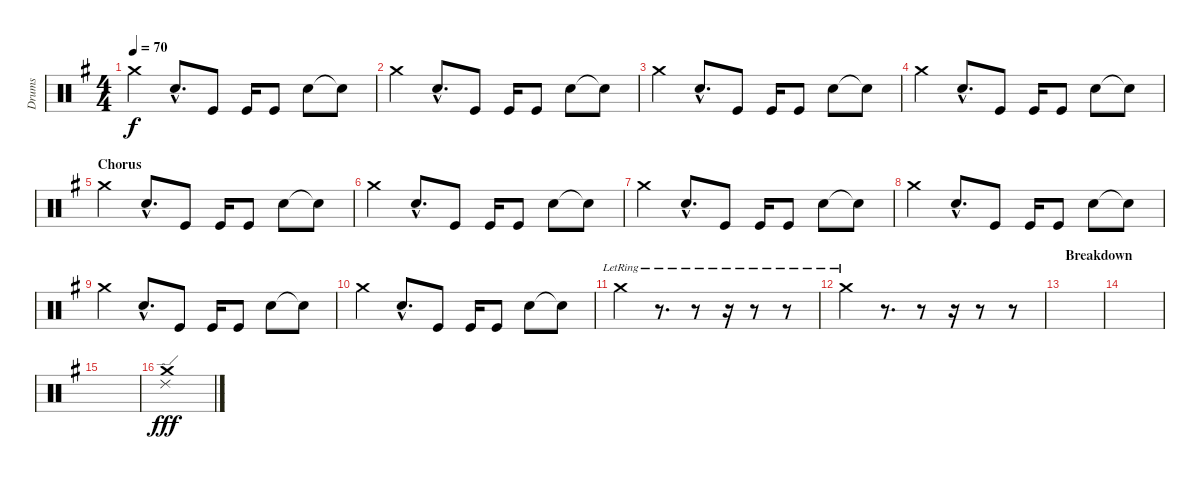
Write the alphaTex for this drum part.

\track ("Drums" "Drums") {instrument percussion}
\staff {score}
\articulation defaults
\ts (4 4)
\tempo 70
\clef neutral
\ks g "Crash medium (hit)".4{dy f} "Snare (hit) 2"{hac}.8{d} "Kick (hit)".8 "Kick (hit)".16 "Kick (hit)".8 "Snare (hit) 2".8 "Snare (hit) 2"{t}.8
|
"Crash medium (hit)".4 "Snare (hit) 2"{hac}.8{d} "Kick (hit)".8 "Kick (hit)".16 "Kick (hit)".8 "Snare (hit) 2".8 "Snare (hit) 2"{t}.8 |
"Crash medium (hit)".4 "Snare (hit) 2"{hac}.8{d} "Kick (hit)".8 "Kick (hit)".16 "Kick (hit)".8 "Snare (hit) 2".8 "Snare (hit) 2"{t}.8 |
"Crash medium (hit)".4 "Snare (hit) 2"{hac}.8{d} "Kick (hit)".8 "Kick (hit)".16 "Kick (hit)".8 "Snare (hit) 2".8 "Snare (hit) 2"{t}.8 |
\section ("" "Chorus")
"Crash medium (hit)".4 "Snare (hit) 2"{hac}.8{d} "Kick (hit)".8 "Kick (hit)".16 "Kick (hit)".8 "Snare (hit) 2".8 "Snare (hit) 2"{t}.8 |
"Crash medium (hit)".4 "Snare (hit) 2"{hac}.8{d} "Kick (hit)".8 "Kick (hit)".16 "Kick (hit)".8 "Snare (hit) 2".8 "Snare (hit) 2"{t}.8 |
"Crash medium (hit)".4 "Snare (hit) 2"{hac}.8{d} "Kick (hit)".8 "Kick (hit)".16 "Kick (hit)".8 "Snare (hit) 2".8 "Snare (hit) 2"{t}.8 |
"Crash medium (hit)".4 "Snare (hit) 2"{hac}.8{d} "Kick (hit)".8 "Kick (hit)".16 "Kick (hit)".8 "Snare (hit) 2".8 "Snare (hit) 2"{t}.8 |
"Crash medium (hit)".4 "Snare (hit) 2"{hac}.8{d} "Kick (hit)".8 "Kick (hit)".16 "Kick (hit)".8 "Snare (hit) 2".8 "Snare (hit) 2"{t}.8 |
"Crash medium (hit)".4 "Snare (hit) 2"{hac}.8{d} "Kick (hit)".8 "Kick (hit)".16 "Kick (hit)".8 "Snare (hit) 2".8 "Snare (hit) 2"{t}.8 |
"Crash medium (hit)"{lr}.4 r.8{d} r.8 r.16 r.8 r.8 |
"Crash medium (hit)"{lr}.4 r.8{d} r.8 r.16 r.8 r.8 |
\section ("" "Breakdown")
|
|
|
("Crash medium (hit)" "Ride (edge) 2").1{dy fff}
